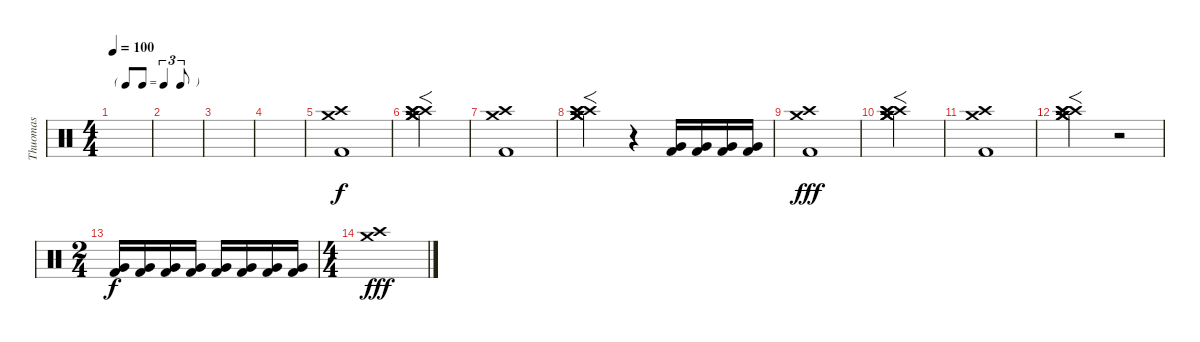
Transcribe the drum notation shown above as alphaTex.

\track ("Thuomas" "Thuomas") {instrument percussion}
\staff {score}
\articulation defaults
\ts (4 4)
\tf triplet8th
\tempo 100
\clef neutral
\ks c
|
|
|
|
("Crash medium (hit)" "Crash high (hit)" "Kick (hit) 2").1 |
("Crash medium (hit)" "Crash medium (hit)" "Crash medium (hit)" "Crash high (hit)" "Crash high (hit)" "Crash high (hit)").2{f} |
("Crash medium (hit)" "Crash high (hit)" "Kick (hit) 2").1 |
("Crash medium (hit)" "Crash medium (hit)" "Crash medium (hit)" "Crash high (hit)" "Crash high (hit)" "Crash high (hit)").2{f} r.4 ("Very Low Tom (hit)" "Kick (hit) 2").16{dy f} ("Very Low Tom (hit)" "Kick (hit) 2").16 ("Very Low Tom (hit)" "Kick (hit) 2").16 ("Very Low Tom (hit)" "Kick (hit) 2").16 |
("Crash medium (hit)" "Crash high (hit)" "Kick (hit) 2").1{dy fff} |
("Crash medium (hit)" "Crash medium (hit)" "Crash medium (hit)" "Crash high (hit)" "Crash high (hit)" "Crash high (hit)").2{f} |
("Crash medium (hit)" "Crash high (hit)" "Kick (hit) 2").1 |
("Crash medium (hit)" "Crash medium (hit)" "Crash medium (hit)" "Crash high (hit)" "Crash high (hit)" "Crash high (hit)").2{f} r.2 |
\ts (2 4)
("Kick (hit) 2" "Very Low Tom (hit)").16{dy f} ("Kick (hit) 2" "Very Low Tom (hit)").16 ("Kick (hit) 2" "Very Low Tom (hit)").16 ("Kick (hit) 2" "Very Low Tom (hit)").16 ("Kick (hit) 2" "Very Low Tom (hit)").16 ("Kick (hit) 2" "Very Low Tom (hit)").16 ("Kick (hit) 2" "Very Low Tom (hit)").16 ("Kick (hit) 2" "Very Low Tom (hit)").16 |
\ts (4 4)
("Crash high (hit)" "Crash medium (hit)").1{dy fff}
